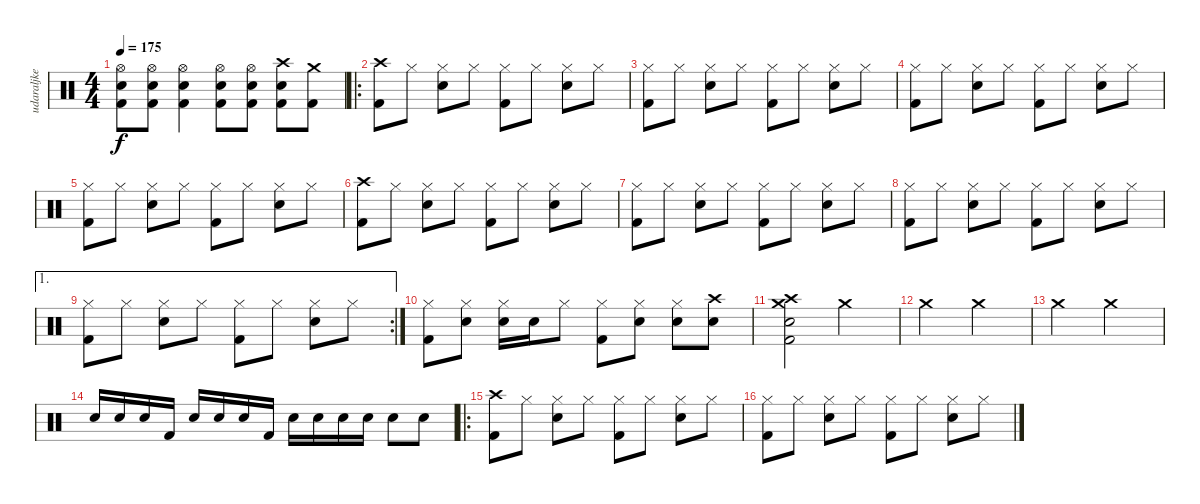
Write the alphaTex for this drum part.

\track ("udaraljke" "udaraljke") {instrument percussion}
\staff {score}
\articulation defaults
\ts (4 4)
\tempo 175
\clef neutral
\ks c
("Hi-Hat (open)" "Snare (hit) 2" "Kick (hit) 2").8{dy f} ("Hi-Hat (open)" "Snare (hit) 2" "Kick (hit) 2").8 ("Hi-Hat (open)" "Snare (hit) 2" "Kick (hit) 2").4 ("Hi-Hat (open)" "Snare (hit) 2" "Kick (hit) 2").8 ("Hi-Hat (open)" "Snare (hit) 2" "Kick (hit) 2").8 ("Crash high (hit)" "Snare (hit) 2" "Kick (hit) 2").8 ("Crash medium (hit)" "Kick (hit) 2").8 |
\ro
("Crash high (hit)" "Kick (hit) 2").8 "Hi-Hat (closed)".8 ("Hi-Hat (closed)" "Snare (hit) 2").8 "Hi-Hat (closed)".8 ("Hi-Hat (closed)" "Kick (hit) 2").8 "Hi-Hat (closed)".8 ("Hi-Hat (closed)" "Snare (hit) 2").8 "Hi-Hat (closed)".8 |
("Hi-Hat (closed)" "Kick (hit) 2").8 "Hi-Hat (closed)".8 ("Hi-Hat (closed)" "Snare (hit) 2").8 "Hi-Hat (closed)".8 ("Hi-Hat (closed)" "Kick (hit) 2").8 "Hi-Hat (closed)".8 ("Hi-Hat (closed)" "Snare (hit) 2").8 "Hi-Hat (closed)".8 |
("Hi-Hat (closed)" "Kick (hit) 2").8 "Hi-Hat (closed)".8 ("Hi-Hat (closed)" "Snare (hit) 2").8 "Hi-Hat (closed)".8 ("Hi-Hat (closed)" "Kick (hit) 2").8 "Hi-Hat (closed)".8 ("Hi-Hat (closed)" "Snare (hit) 2").8 "Hi-Hat (closed)".8 |
("Hi-Hat (closed)" "Kick (hit) 2").8 "Hi-Hat (closed)".8 ("Hi-Hat (closed)" "Snare (hit) 2").8 "Hi-Hat (closed)".8 ("Hi-Hat (closed)" "Kick (hit) 2").8 "Hi-Hat (closed)".8 ("Hi-Hat (closed)" "Snare (hit) 2").8 "Hi-Hat (closed)".8 |
("Crash high (hit)" "Kick (hit) 2").8 "Hi-Hat (closed)".8 ("Hi-Hat (closed)" "Snare (hit) 2").8 "Hi-Hat (closed)".8 ("Hi-Hat (closed)" "Kick (hit) 2").8 "Hi-Hat (closed)".8 ("Hi-Hat (closed)" "Snare (hit) 2").8 "Hi-Hat (closed)".8 |
("Hi-Hat (closed)" "Kick (hit) 2").8 "Hi-Hat (closed)".8 ("Hi-Hat (closed)" "Snare (hit) 2").8 "Hi-Hat (closed)".8 ("Hi-Hat (closed)" "Kick (hit) 2").8 "Hi-Hat (closed)".8 ("Hi-Hat (closed)" "Snare (hit) 2").8 "Hi-Hat (closed)".8 |
("Hi-Hat (closed)" "Kick (hit) 2").8 "Hi-Hat (closed)".8 ("Hi-Hat (closed)" "Snare (hit) 2").8 "Hi-Hat (closed)".8 ("Hi-Hat (closed)" "Kick (hit) 2").8 "Hi-Hat (closed)".8 ("Hi-Hat (closed)" "Snare (hit) 2").8 "Hi-Hat (closed)".8 |
\ae 1
\rc 2
("Hi-Hat (closed)" "Kick (hit) 2").8 "Hi-Hat (closed)".8 ("Hi-Hat (closed)" "Snare (hit) 2").8 "Hi-Hat (closed)".8 ("Hi-Hat (closed)" "Kick (hit) 2").8 "Hi-Hat (closed)".8 ("Hi-Hat (closed)" "Snare (hit) 2").8 "Hi-Hat (closed)".8 |
("Hi-Hat (closed)" "Kick (hit) 2").8 ("Hi-Hat (closed)" "Snare (hit) 2").8 ("Hi-Hat (closed)" "Snare (hit) 2").16 "Snare (hit) 2".16 "Hi-Hat (closed)".8 ("Hi-Hat (closed)" "Kick (hit) 2").8 ("Hi-Hat (closed)" "Snare (hit) 2").8 ("Hi-Hat (closed)" "Snare (hit) 2").8 ("Crash high (hit)" "Snare (hit) 2").8 |
("Crash medium (hit)" "Crash high (hit)" "Snare (hit) 2" "Kick (hit) 2").2 "Crash medium (hit)".2 |
"Crash medium (hit)".2 "Crash medium (hit)".2 |
"Crash medium (hit)".2 "Crash medium (hit)".2 |
"Snare (hit) 2".16 "Snare (hit) 2".16 "Snare (hit) 2".16 "Kick (hit) 2".16 "Snare (hit) 2".16 "Snare (hit) 2".16 "Snare (hit) 2".16 "Kick (hit) 2".16 "Snare (hit) 2".16 "Snare (hit) 2".16 "Snare (hit) 2".16 "Snare (hit) 2".16 "Snare (hit) 2".8 "Snare (hit) 2".8 |
\ro
("Crash high (hit)" "Kick (hit) 2").8 "Hi-Hat (closed)".8 ("Hi-Hat (closed)" "Snare (hit) 2").8 "Hi-Hat (closed)".8 ("Hi-Hat (closed)" "Kick (hit) 2").8 "Hi-Hat (closed)".8 ("Hi-Hat (closed)" "Snare (hit) 2").8 "Hi-Hat (closed)".8 |
("Hi-Hat (closed)" "Kick (hit) 2").8 "Hi-Hat (closed)".8 ("Hi-Hat (closed)" "Snare (hit) 2").8 "Hi-Hat (closed)".8 ("Hi-Hat (closed)" "Kick (hit) 2").8 "Hi-Hat (closed)".8 ("Hi-Hat (closed)" "Snare (hit) 2").8 "Hi-Hat (closed)".8
